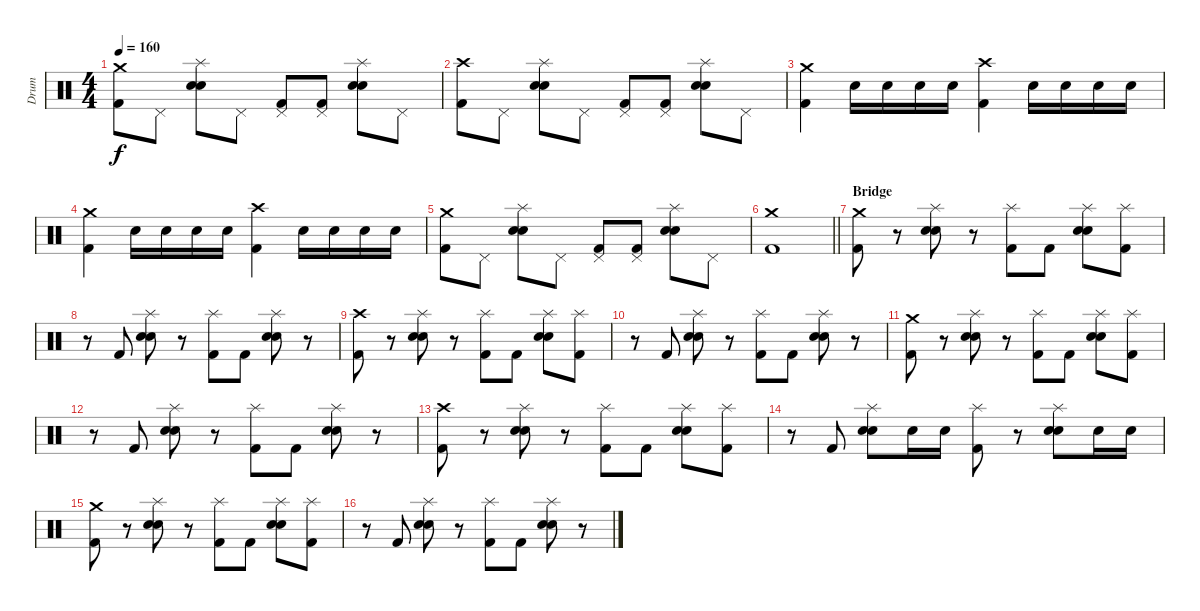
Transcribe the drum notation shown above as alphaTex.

\track ("Drum" "Drum") {instrument percussion}
\staff {score}
\articulation defaults
\ts (4 4)
\tempo 160
\clef neutral
\ks c
("Crash medium (hit)" "Kick (hit) 2").8{dy f} "Pedal Hi-Hat (hit)".8 ("Splash (hit)" "Electric Snare (hit)" "Snare (hit) 2").8 "Pedal Hi-Hat (hit)".8 ("Pedal Hi-Hat (hit)" "Kick (hit) 2").8 ("Pedal Hi-Hat (hit)" "Kick (hit) 2").8 ("Splash (hit)" "Electric Snare (hit)" "Snare (hit) 2").8 "Pedal Hi-Hat (hit)".8 |
("Crash high (hit)" "Kick (hit) 2").8 "Pedal Hi-Hat (hit)".8 ("Splash (hit)" "Electric Snare (hit)" "Snare (hit) 2").8 "Pedal Hi-Hat (hit)".8 ("Pedal Hi-Hat (hit)" "Kick (hit) 2").8 ("Pedal Hi-Hat (hit)" "Kick (hit) 2").8 ("Splash (hit)" "Electric Snare (hit)" "Snare (hit) 2").8 "Pedal Hi-Hat (hit)".8 |
("Crash medium (hit)" "Kick (hit) 2").4 "Electric Snare (hit)".16 "Electric Snare (hit)".16 "Electric Snare (hit)".16 "Electric Snare (hit)".16 ("Crash high (hit)" "Kick (hit) 2").4 "Electric Snare (hit)".16 "Electric Snare (hit)".16 "Electric Snare (hit)".16 "Electric Snare (hit)".16 |
("Crash medium (hit)" "Kick (hit) 2").4 "Electric Snare (hit)".16 "Electric Snare (hit)".16 "Electric Snare (hit)".16 "Electric Snare (hit)".16 ("Crash high (hit)" "Kick (hit) 2").4 "Electric Snare (hit)".16 "Electric Snare (hit)".16 "Electric Snare (hit)".16 "Electric Snare (hit)".16 |
("Crash medium (hit)" "Kick (hit) 2").8 "Pedal Hi-Hat (hit)".8 ("Splash (hit)" "Electric Snare (hit)" "Snare (hit) 2").8 "Pedal Hi-Hat (hit)".8 ("Pedal Hi-Hat (hit)" "Kick (hit) 2").8 ("Pedal Hi-Hat (hit)" "Kick (hit) 2").8 ("Splash (hit)" "Electric Snare (hit)" "Snare (hit) 2").8 "Pedal Hi-Hat (hit)".8 |
\barLineRight lightlight
("Crash medium (hit)" "Kick (hit) 2").1 |
\section ("" "Bridge")
("Crash medium (hit)" "Kick (hit) 2").8 r.8 ("Splash (hit)" "Electric Snare (hit)" "Snare (hit) 2").8 r.8 ("Splash (hit)" "Kick (hit) 2").8 "Kick (hit) 2".8 ("Splash (hit)" "Electric Snare (hit)" "Snare (hit) 2").8 ("Splash (hit)" "Kick (hit) 2").8 |
r.8 "Kick (hit) 2".8 ("Splash (hit)" "Electric Snare (hit)" "Snare (hit) 2").8 r.8 ("Splash (hit)" "Kick (hit) 2").8 "Kick (hit) 2".8 ("Splash (hit)" "Electric Snare (hit)" "Snare (hit) 2").8 r.8 |
("Crash high (hit)" "Kick (hit) 2").8 r.8 ("Splash (hit)" "Electric Snare (hit)" "Snare (hit) 2").8 r.8 ("Splash (hit)" "Kick (hit) 2").8 "Kick (hit) 2".8 ("Splash (hit)" "Electric Snare (hit)" "Snare (hit) 2").8 ("Splash (hit)" "Kick (hit) 2").8 |
r.8 "Kick (hit) 2".8 ("Splash (hit)" "Electric Snare (hit)" "Snare (hit) 2").8 r.8 ("Splash (hit)" "Kick (hit) 2").8 "Kick (hit) 2".8 ("Splash (hit)" "Electric Snare (hit)" "Snare (hit) 2").8 r.8 |
("Crash medium (hit)" "Kick (hit) 2").8 r.8 ("Splash (hit)" "Electric Snare (hit)" "Snare (hit) 2").8 r.8 ("Splash (hit)" "Kick (hit) 2").8 "Kick (hit) 2".8 ("Splash (hit)" "Electric Snare (hit)" "Snare (hit) 2").8 ("Splash (hit)" "Kick (hit) 2").8 |
r.8 "Kick (hit) 2".8 ("Splash (hit)" "Electric Snare (hit)" "Snare (hit) 2").8 r.8 ("Splash (hit)" "Kick (hit) 2").8 "Kick (hit) 2".8 ("Splash (hit)" "Electric Snare (hit)" "Snare (hit) 2").8 r.8 |
("Crash high (hit)" "Kick (hit) 2").8 r.8 ("Splash (hit)" "Electric Snare (hit)" "Snare (hit) 2").8 r.8 ("Splash (hit)" "Kick (hit) 2").8 "Kick (hit) 2".8 ("Splash (hit)" "Electric Snare (hit)" "Snare (hit) 2").8 ("Splash (hit)" "Kick (hit) 2").8 |
r.8 "Kick (hit) 2".8 ("Splash (hit)" "Electric Snare (hit)" "Snare (hit) 2").8 "Electric Snare (hit)".16 "Electric Snare (hit)".16 ("Splash (hit)" "Kick (hit) 2").8 r.8 ("Splash (hit)" "Electric Snare (hit)" "Snare (hit) 2").8 "Electric Snare (hit)".16 "Electric Snare (hit)".16 |
("Crash medium (hit)" "Kick (hit) 2").8 r.8 ("Splash (hit)" "Electric Snare (hit)" "Snare (hit) 2").8 r.8 ("Splash (hit)" "Kick (hit) 2").8 "Kick (hit) 2".8 ("Splash (hit)" "Electric Snare (hit)" "Snare (hit) 2").8 ("Splash (hit)" "Kick (hit) 2").8 |
r.8 "Kick (hit) 2".8 ("Splash (hit)" "Electric Snare (hit)" "Snare (hit) 2").8 r.8 ("Splash (hit)" "Kick (hit) 2").8 "Kick (hit) 2".8 ("Splash (hit)" "Electric Snare (hit)" "Snare (hit) 2").8 r.8
